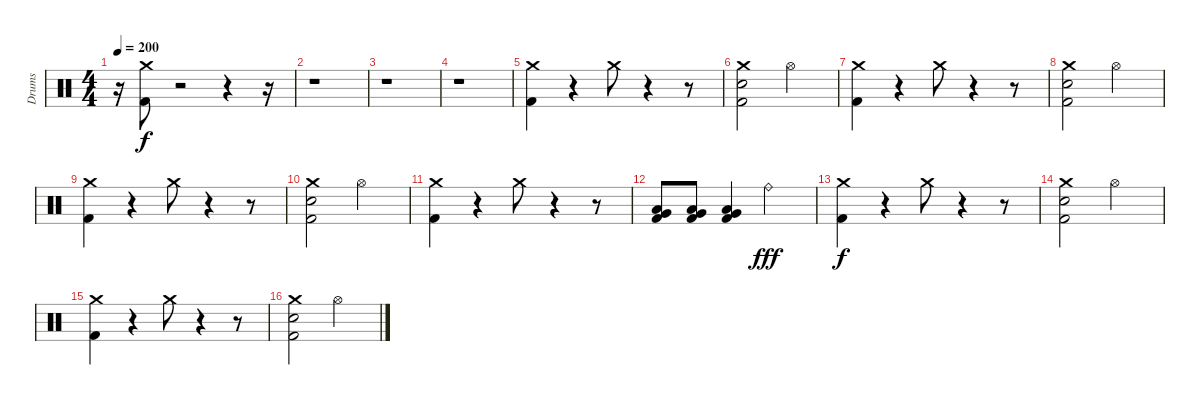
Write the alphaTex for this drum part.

\track ("Drums" "Drums") {instrument percussion}
\staff {score}
\articulation defaults
\ts (4 4)
\tempo 200
\clef neutral
\ks c
r.16{dy f} ("Crash medium (hit)" "Kick (hit) 2").8 r.2 r.4 r.16 |
r.1 |
r.1 |
r.1 |
("Crash medium (hit)" "Kick (hit) 2").4 r.4 "Crash medium (hit)".8 r.4 r.8 |
("Crash medium (hit)" "Electric Snare (hit)" "Kick (hit) 2").2 "Hi-Hat (open)".2 |
("Crash medium (hit)" "Kick (hit) 2").4 r.4 "Crash medium (hit)".8 r.4 r.8 |
("Crash medium (hit)" "Electric Snare (hit)" "Kick (hit) 2").2 "Hi-Hat (open)".2 |
("Crash medium (hit)" "Kick (hit) 2").4 r.4 "Crash medium (hit)".8 r.4 r.8 |
("Crash medium (hit)" "Electric Snare (hit)" "Kick (hit) 2").2 "Hi-Hat (open)".2 |
("Crash medium (hit)" "Kick (hit) 2").4 r.4 "Crash medium (hit)".8 r.4 r.8 |
("Very Low Tom (hit)" "Low Floor Tom (hit)" "Kick (hit) 2").8 ("Very Low Tom (hit)" "Low Floor Tom (hit)" "Kick (hit) 2").8 ("Very Low Tom (hit)" "Low Floor Tom (hit)" "Kick (hit) 2").4 "Ride (bell)".2{dy fff} |
("Crash medium (hit)" "Kick (hit) 2").4{dy f} r.4 "Crash medium (hit)".8 r.4 r.8 |
("Crash medium (hit)" "Electric Snare (hit)" "Kick (hit) 2").2 "Hi-Hat (open)".2 |
("Crash medium (hit)" "Kick (hit) 2").4 r.4 "Crash medium (hit)".8 r.4 r.8 |
("Crash medium (hit)" "Electric Snare (hit)" "Kick (hit) 2").2 "Hi-Hat (open)".2
